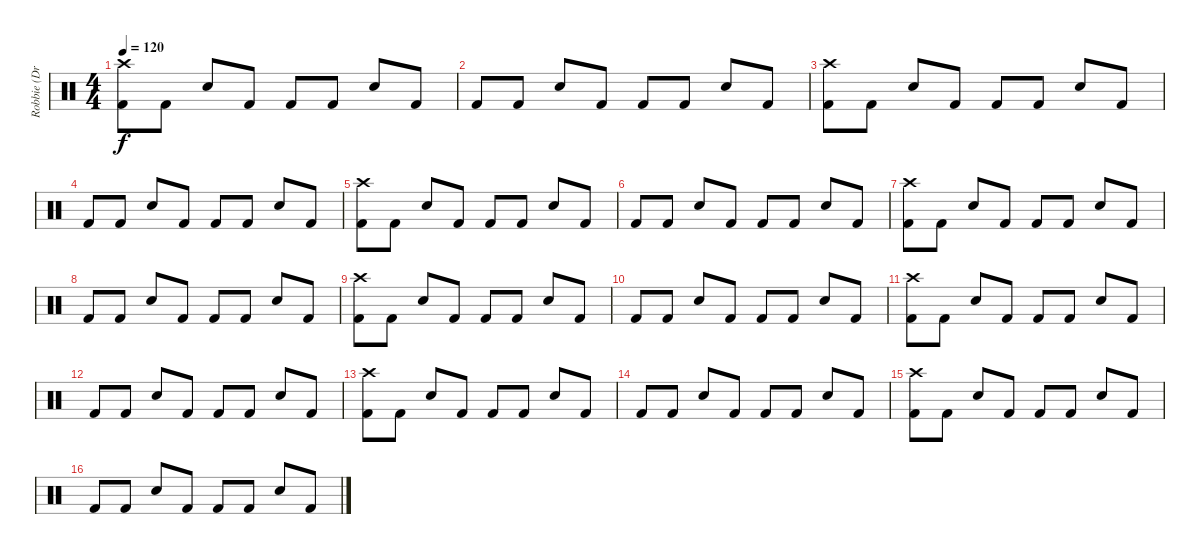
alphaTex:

\track ("Robbie (Drums)" "Robbie (Dr") {instrument percussion}
\staff {score}
\articulation defaults
\ts (4 4)
\tempo 120
\clef neutral
\ks c
("Crash high (hit)" "Kick (hit) 2").8{dy f} "Kick (hit) 2".8 "Electric Snare (hit)".8 "Kick (hit) 2".8 "Kick (hit) 2".8 "Kick (hit) 2".8 "Electric Snare (hit)".8 "Kick (hit) 2".8 |
"Kick (hit) 2".8 "Kick (hit) 2".8 "Electric Snare (hit)".8 "Kick (hit) 2".8 "Kick (hit) 2".8 "Kick (hit) 2".8 "Electric Snare (hit)".8 "Kick (hit) 2".8 |
("Crash high (hit)" "Kick (hit) 2").8 "Kick (hit) 2".8 "Electric Snare (hit)".8 "Kick (hit) 2".8 "Kick (hit) 2".8 "Kick (hit) 2".8 "Electric Snare (hit)".8 "Kick (hit) 2".8 |
"Kick (hit) 2".8 "Kick (hit) 2".8 "Electric Snare (hit)".8 "Kick (hit) 2".8 "Kick (hit) 2".8 "Kick (hit) 2".8 "Electric Snare (hit)".8 "Kick (hit) 2".8 |
("Crash high (hit)" "Kick (hit) 2").8 "Kick (hit) 2".8 "Electric Snare (hit)".8 "Kick (hit) 2".8 "Kick (hit) 2".8 "Kick (hit) 2".8 "Electric Snare (hit)".8 "Kick (hit) 2".8 |
"Kick (hit) 2".8 "Kick (hit) 2".8 "Electric Snare (hit)".8 "Kick (hit) 2".8 "Kick (hit) 2".8 "Kick (hit) 2".8 "Electric Snare (hit)".8 "Kick (hit) 2".8 |
("Crash high (hit)" "Kick (hit) 2").8 "Kick (hit) 2".8 "Electric Snare (hit)".8 "Kick (hit) 2".8 "Kick (hit) 2".8 "Kick (hit) 2".8 "Electric Snare (hit)".8 "Kick (hit) 2".8 |
"Kick (hit) 2".8 "Kick (hit) 2".8 "Electric Snare (hit)".8 "Kick (hit) 2".8 "Kick (hit) 2".8 "Kick (hit) 2".8 "Electric Snare (hit)".8 "Kick (hit) 2".8 |
("Crash high (hit)" "Kick (hit) 2").8 "Kick (hit) 2".8 "Electric Snare (hit)".8 "Kick (hit) 2".8 "Kick (hit) 2".8 "Kick (hit) 2".8 "Electric Snare (hit)".8 "Kick (hit) 2".8 |
"Kick (hit) 2".8 "Kick (hit) 2".8 "Electric Snare (hit)".8 "Kick (hit) 2".8 "Kick (hit) 2".8 "Kick (hit) 2".8 "Electric Snare (hit)".8 "Kick (hit) 2".8 |
("Crash high (hit)" "Kick (hit) 2").8 "Kick (hit) 2".8 "Electric Snare (hit)".8 "Kick (hit) 2".8 "Kick (hit) 2".8 "Kick (hit) 2".8 "Electric Snare (hit)".8 "Kick (hit) 2".8 |
"Kick (hit) 2".8 "Kick (hit) 2".8 "Electric Snare (hit)".8 "Kick (hit) 2".8 "Kick (hit) 2".8 "Kick (hit) 2".8 "Electric Snare (hit)".8 "Kick (hit) 2".8 |
("Crash high (hit)" "Kick (hit) 2").8 "Kick (hit) 2".8 "Electric Snare (hit)".8 "Kick (hit) 2".8 "Kick (hit) 2".8 "Kick (hit) 2".8 "Electric Snare (hit)".8 "Kick (hit) 2".8 |
"Kick (hit) 2".8 "Kick (hit) 2".8 "Electric Snare (hit)".8 "Kick (hit) 2".8 "Kick (hit) 2".8 "Kick (hit) 2".8 "Electric Snare (hit)".8 "Kick (hit) 2".8 |
("Crash high (hit)" "Kick (hit) 2").8 "Kick (hit) 2".8 "Electric Snare (hit)".8 "Kick (hit) 2".8 "Kick (hit) 2".8 "Kick (hit) 2".8 "Electric Snare (hit)".8 "Kick (hit) 2".8 |
"Kick (hit) 2".8 "Kick (hit) 2".8 "Electric Snare (hit)".8 "Kick (hit) 2".8 "Kick (hit) 2".8 "Kick (hit) 2".8 "Electric Snare (hit)".8 "Kick (hit) 2".8
